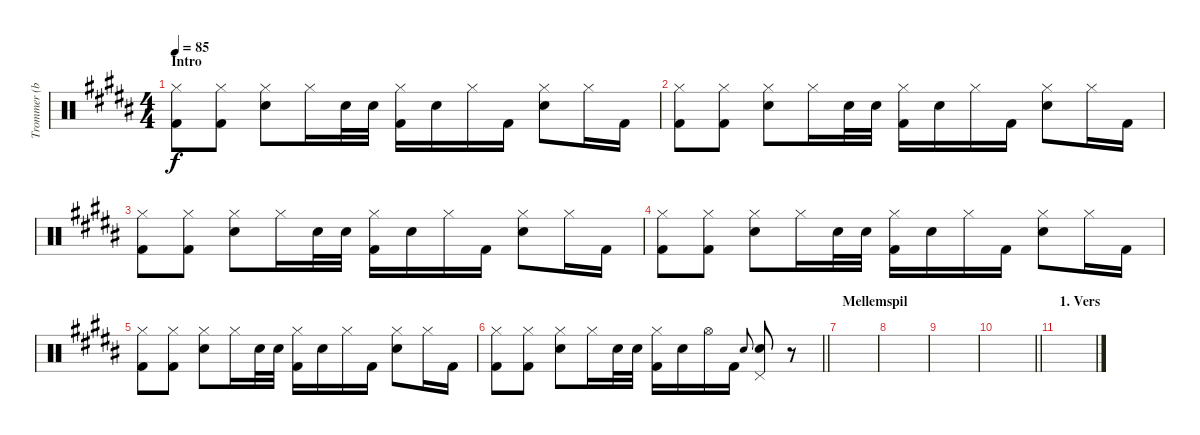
\track ("Trommer (bare lige til starten)" "Trommer (b") {instrument percussion}
\staff {score}
\articulation defaults
\ts (4 4)
\section ("" "Intro")
\tempo 85
\clef neutral
\ks b
("Hi-Hat (closed)" "Kick (hit) 2").8{dy f} ("Hi-Hat (closed)" "Kick (hit) 2").8 ("Hi-Hat (closed)" "Electric Snare (hit)").8 "Hi-Hat (closed)".16 "Electric Snare (hit)".32 "Electric Snare (hit)".32 ("Hi-Hat (closed)" "Kick (hit) 2").16 "Electric Snare (hit)".16 "Hi-Hat (closed)".16 "Kick (hit) 2".16 ("Hi-Hat (closed)" "Electric Snare (hit)").8 "Hi-Hat (closed)".16 "Kick (hit) 2".16 |
("Hi-Hat (closed)" "Kick (hit) 2").8 ("Hi-Hat (closed)" "Kick (hit) 2").8 ("Hi-Hat (closed)" "Electric Snare (hit)").8 "Hi-Hat (closed)".16 "Electric Snare (hit)".32 "Electric Snare (hit)".32 ("Hi-Hat (closed)" "Kick (hit) 2").16 "Electric Snare (hit)".16 "Hi-Hat (closed)".16 "Kick (hit) 2".16 ("Hi-Hat (closed)" "Electric Snare (hit)").8 "Hi-Hat (closed)".16 "Kick (hit) 2".16 |
("Hi-Hat (closed)" "Kick (hit) 2").8 ("Hi-Hat (closed)" "Kick (hit) 2").8 ("Hi-Hat (closed)" "Electric Snare (hit)").8 "Hi-Hat (closed)".16 "Electric Snare (hit)".32 "Electric Snare (hit)".32 ("Hi-Hat (closed)" "Kick (hit) 2").16 "Electric Snare (hit)".16 "Hi-Hat (closed)".16 "Kick (hit) 2".16 ("Hi-Hat (closed)" "Electric Snare (hit)").8 "Hi-Hat (closed)".16 "Kick (hit) 2".16 |
("Hi-Hat (closed)" "Kick (hit) 2").8 ("Hi-Hat (closed)" "Kick (hit) 2").8 ("Hi-Hat (closed)" "Electric Snare (hit)").8 "Hi-Hat (closed)".16 "Electric Snare (hit)".32 "Electric Snare (hit)".32 ("Hi-Hat (closed)" "Kick (hit) 2").16 "Electric Snare (hit)".16 "Hi-Hat (closed)".16 "Kick (hit) 2".16 ("Hi-Hat (closed)" "Electric Snare (hit)").8 "Hi-Hat (closed)".16 "Kick (hit) 2".16 |
("Hi-Hat (closed)" "Kick (hit) 2").8 ("Hi-Hat (closed)" "Kick (hit) 2").8 ("Hi-Hat (closed)" "Electric Snare (hit)").8 "Hi-Hat (closed)".16 "Electric Snare (hit)".32 "Electric Snare (hit)".32 ("Hi-Hat (closed)" "Kick (hit) 2").16 "Electric Snare (hit)".16 "Hi-Hat (closed)".16 "Kick (hit) 2".16 ("Hi-Hat (closed)" "Electric Snare (hit)").8 "Hi-Hat (closed)".16 "Kick (hit) 2".16 |
\barLineRight lightlight
("Hi-Hat (closed)" "Kick (hit) 2").8 ("Hi-Hat (closed)" "Kick (hit) 2").8 ("Hi-Hat (closed)" "Electric Snare (hit)").8 "Hi-Hat (closed)".16 "Electric Snare (hit)".32 "Electric Snare (hit)".32 ("Hi-Hat (closed)" "Kick (hit) 2").16 "Electric Snare (hit)".16 "Hi-Hat (open)".16 "Kick (hit) 2".16 "Electric Snare (hit)".8{gr onbeat} ("Pedal Hi-Hat (hit)" "Electric Snare (hit)").8 r.8 |
\section ("" "Mellemspil")
|
|
|
\barLineRight lightlight
|
\section ("" "1. Vers")
